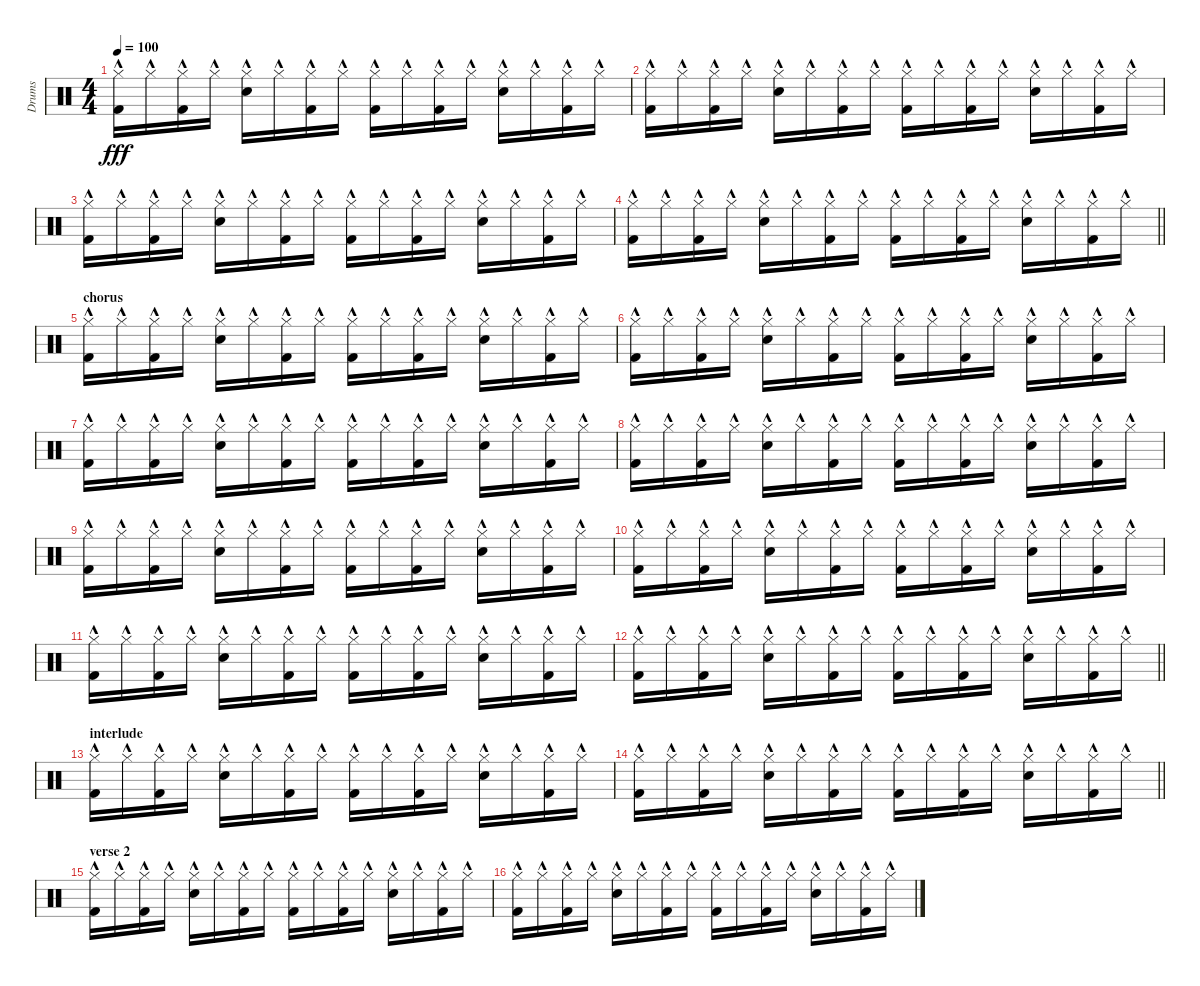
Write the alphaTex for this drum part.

\track ("Drums" "Drums") {instrument percussion}
\staff {score}
\articulation defaults
\ts (4 4)
\tempo 100
\clef neutral
\ks c
("Hi-Hat (closed)"{hac} "Kick (hit) 2").16{dy fff} "Hi-Hat (closed)"{hac}.16 ("Hi-Hat (closed)"{hac} "Kick (hit) 2").16 "Hi-Hat (closed)"{hac}.16 ("Hi-Hat (closed)"{hac} "Electric Snare (hit)"{hac}).16 "Hi-Hat (closed)"{hac}.16 ("Hi-Hat (closed)"{hac} "Kick (hit) 2").16 "Hi-Hat (closed)"{hac}.16 ("Hi-Hat (closed)"{hac} "Kick (hit) 2").16 "Hi-Hat (closed)"{hac}.16 ("Hi-Hat (closed)"{hac} "Kick (hit) 2").16 "Hi-Hat (closed)"{hac}.16 ("Hi-Hat (closed)"{hac} "Electric Snare (hit)"{hac}).16 "Hi-Hat (closed)"{hac}.16 ("Hi-Hat (closed)"{hac} "Kick (hit) 2").16 "Hi-Hat (closed)"{hac}.16 |
("Hi-Hat (closed)"{hac} "Kick (hit) 2").16 "Hi-Hat (closed)"{hac}.16 ("Hi-Hat (closed)"{hac} "Kick (hit) 2").16 "Hi-Hat (closed)"{hac}.16 ("Hi-Hat (closed)"{hac} "Electric Snare (hit)"{hac}).16 "Hi-Hat (closed)"{hac}.16 ("Hi-Hat (closed)"{hac} "Kick (hit) 2").16 "Hi-Hat (closed)"{hac}.16 ("Hi-Hat (closed)"{hac} "Kick (hit) 2").16 "Hi-Hat (closed)"{hac}.16 ("Hi-Hat (closed)"{hac} "Kick (hit) 2").16 "Hi-Hat (closed)"{hac}.16 ("Hi-Hat (closed)"{hac} "Electric Snare (hit)"{hac}).16 "Hi-Hat (closed)"{hac}.16 ("Hi-Hat (closed)"{hac} "Kick (hit) 2").16 "Hi-Hat (closed)"{hac}.16 |
("Hi-Hat (closed)"{hac} "Kick (hit) 2").16 "Hi-Hat (closed)"{hac}.16 ("Hi-Hat (closed)"{hac} "Kick (hit) 2").16 "Hi-Hat (closed)"{hac}.16 ("Hi-Hat (closed)"{hac} "Electric Snare (hit)"{hac}).16 "Hi-Hat (closed)"{hac}.16 ("Hi-Hat (closed)"{hac} "Kick (hit) 2").16 "Hi-Hat (closed)"{hac}.16 ("Hi-Hat (closed)"{hac} "Kick (hit) 2").16 "Hi-Hat (closed)"{hac}.16 ("Hi-Hat (closed)"{hac} "Kick (hit) 2").16 "Hi-Hat (closed)"{hac}.16 ("Hi-Hat (closed)"{hac} "Electric Snare (hit)"{hac}).16 "Hi-Hat (closed)"{hac}.16 ("Hi-Hat (closed)"{hac} "Kick (hit) 2").16 "Hi-Hat (closed)"{hac}.16 |
\barLineRight lightlight
("Hi-Hat (closed)"{hac} "Kick (hit) 2").16 "Hi-Hat (closed)"{hac}.16 ("Hi-Hat (closed)"{hac} "Kick (hit) 2").16 "Hi-Hat (closed)"{hac}.16 ("Hi-Hat (closed)"{hac} "Electric Snare (hit)"{hac}).16 "Hi-Hat (closed)"{hac}.16 ("Hi-Hat (closed)"{hac} "Kick (hit) 2").16 "Hi-Hat (closed)"{hac}.16 ("Hi-Hat (closed)"{hac} "Kick (hit) 2").16 "Hi-Hat (closed)"{hac}.16 ("Hi-Hat (closed)"{hac} "Kick (hit) 2").16 "Hi-Hat (closed)"{hac}.16 ("Hi-Hat (closed)"{hac} "Electric Snare (hit)"{hac}).16 "Hi-Hat (closed)"{hac}.16 ("Hi-Hat (closed)"{hac} "Kick (hit) 2").16 "Hi-Hat (closed)"{hac}.16 |
\section ("" "chorus")
("Hi-Hat (closed)"{hac} "Kick (hit) 2").16 "Hi-Hat (closed)"{hac}.16 ("Hi-Hat (closed)"{hac} "Kick (hit) 2").16 "Hi-Hat (closed)"{hac}.16 ("Hi-Hat (closed)"{hac} "Electric Snare (hit)"{hac}).16 "Hi-Hat (closed)"{hac}.16 ("Hi-Hat (closed)"{hac} "Kick (hit) 2").16 "Hi-Hat (closed)"{hac}.16 ("Hi-Hat (closed)"{hac} "Kick (hit) 2").16 "Hi-Hat (closed)"{hac}.16 ("Hi-Hat (closed)"{hac} "Kick (hit) 2").16 "Hi-Hat (closed)"{hac}.16 ("Hi-Hat (closed)"{hac} "Electric Snare (hit)"{hac}).16 "Hi-Hat (closed)"{hac}.16 ("Hi-Hat (closed)"{hac} "Kick (hit) 2").16 "Hi-Hat (closed)"{hac}.16 |
("Hi-Hat (closed)"{hac} "Kick (hit) 2").16 "Hi-Hat (closed)"{hac}.16 ("Hi-Hat (closed)"{hac} "Kick (hit) 2").16 "Hi-Hat (closed)"{hac}.16 ("Hi-Hat (closed)"{hac} "Electric Snare (hit)"{hac}).16 "Hi-Hat (closed)"{hac}.16 ("Hi-Hat (closed)"{hac} "Kick (hit) 2").16 "Hi-Hat (closed)"{hac}.16 ("Hi-Hat (closed)"{hac} "Kick (hit) 2").16 "Hi-Hat (closed)"{hac}.16 ("Hi-Hat (closed)"{hac} "Kick (hit) 2").16 "Hi-Hat (closed)"{hac}.16 ("Hi-Hat (closed)"{hac} "Electric Snare (hit)"{hac}).16 "Hi-Hat (closed)"{hac}.16 ("Hi-Hat (closed)"{hac} "Kick (hit) 2").16 "Hi-Hat (closed)"{hac}.16 |
("Hi-Hat (closed)"{hac} "Kick (hit) 2").16 "Hi-Hat (closed)"{hac}.16 ("Hi-Hat (closed)"{hac} "Kick (hit) 2").16 "Hi-Hat (closed)"{hac}.16 ("Hi-Hat (closed)"{hac} "Electric Snare (hit)"{hac}).16 "Hi-Hat (closed)"{hac}.16 ("Hi-Hat (closed)"{hac} "Kick (hit) 2").16 "Hi-Hat (closed)"{hac}.16 ("Hi-Hat (closed)"{hac} "Kick (hit) 2").16 "Hi-Hat (closed)"{hac}.16 ("Hi-Hat (closed)"{hac} "Kick (hit) 2").16 "Hi-Hat (closed)"{hac}.16 ("Hi-Hat (closed)"{hac} "Electric Snare (hit)"{hac}).16 "Hi-Hat (closed)"{hac}.16 ("Hi-Hat (closed)"{hac} "Kick (hit) 2").16 "Hi-Hat (closed)"{hac}.16 |
("Hi-Hat (closed)"{hac} "Kick (hit) 2").16 "Hi-Hat (closed)"{hac}.16 ("Hi-Hat (closed)"{hac} "Kick (hit) 2").16 "Hi-Hat (closed)"{hac}.16 ("Hi-Hat (closed)"{hac} "Electric Snare (hit)"{hac}).16 "Hi-Hat (closed)"{hac}.16 ("Hi-Hat (closed)"{hac} "Kick (hit) 2").16 "Hi-Hat (closed)"{hac}.16 ("Hi-Hat (closed)"{hac} "Kick (hit) 2").16 "Hi-Hat (closed)"{hac}.16 ("Hi-Hat (closed)"{hac} "Kick (hit) 2").16 "Hi-Hat (closed)"{hac}.16 ("Hi-Hat (closed)"{hac} "Electric Snare (hit)"{hac}).16 "Hi-Hat (closed)"{hac}.16 ("Hi-Hat (closed)"{hac} "Kick (hit) 2").16 "Hi-Hat (closed)"{hac}.16 |
("Hi-Hat (closed)"{hac} "Kick (hit) 2").16 "Hi-Hat (closed)"{hac}.16 ("Hi-Hat (closed)"{hac} "Kick (hit) 2").16 "Hi-Hat (closed)"{hac}.16 ("Hi-Hat (closed)"{hac} "Electric Snare (hit)"{hac}).16 "Hi-Hat (closed)"{hac}.16 ("Hi-Hat (closed)"{hac} "Kick (hit) 2").16 "Hi-Hat (closed)"{hac}.16 ("Hi-Hat (closed)"{hac} "Kick (hit) 2").16 "Hi-Hat (closed)"{hac}.16 ("Hi-Hat (closed)"{hac} "Kick (hit) 2").16 "Hi-Hat (closed)"{hac}.16 ("Hi-Hat (closed)"{hac} "Electric Snare (hit)"{hac}).16 "Hi-Hat (closed)"{hac}.16 ("Hi-Hat (closed)"{hac} "Kick (hit) 2").16 "Hi-Hat (closed)"{hac}.16 |
("Hi-Hat (closed)"{hac} "Kick (hit) 2").16 "Hi-Hat (closed)"{hac}.16 ("Hi-Hat (closed)"{hac} "Kick (hit) 2").16 "Hi-Hat (closed)"{hac}.16 ("Hi-Hat (closed)"{hac} "Electric Snare (hit)"{hac}).16 "Hi-Hat (closed)"{hac}.16 ("Hi-Hat (closed)"{hac} "Kick (hit) 2").16 "Hi-Hat (closed)"{hac}.16 ("Hi-Hat (closed)"{hac} "Kick (hit) 2").16 "Hi-Hat (closed)"{hac}.16 ("Hi-Hat (closed)"{hac} "Kick (hit) 2").16 "Hi-Hat (closed)"{hac}.16 ("Hi-Hat (closed)"{hac} "Electric Snare (hit)"{hac}).16 "Hi-Hat (closed)"{hac}.16 ("Hi-Hat (closed)"{hac} "Kick (hit) 2").16 "Hi-Hat (closed)"{hac}.16 |
("Hi-Hat (closed)"{hac} "Kick (hit) 2").16 "Hi-Hat (closed)"{hac}.16 ("Hi-Hat (closed)"{hac} "Kick (hit) 2").16 "Hi-Hat (closed)"{hac}.16 ("Hi-Hat (closed)"{hac} "Electric Snare (hit)"{hac}).16 "Hi-Hat (closed)"{hac}.16 ("Hi-Hat (closed)"{hac} "Kick (hit) 2").16 "Hi-Hat (closed)"{hac}.16 ("Hi-Hat (closed)"{hac} "Kick (hit) 2").16 "Hi-Hat (closed)"{hac}.16 ("Hi-Hat (closed)"{hac} "Kick (hit) 2").16 "Hi-Hat (closed)"{hac}.16 ("Hi-Hat (closed)"{hac} "Electric Snare (hit)"{hac}).16 "Hi-Hat (closed)"{hac}.16 ("Hi-Hat (closed)"{hac} "Kick (hit) 2").16 "Hi-Hat (closed)"{hac}.16 |
\barLineRight lightlight
("Hi-Hat (closed)"{hac} "Kick (hit) 2").16 "Hi-Hat (closed)"{hac}.16 ("Hi-Hat (closed)"{hac} "Kick (hit) 2").16 "Hi-Hat (closed)"{hac}.16 ("Hi-Hat (closed)"{hac} "Electric Snare (hit)"{hac}).16 "Hi-Hat (closed)"{hac}.16 ("Hi-Hat (closed)"{hac} "Kick (hit) 2").16 "Hi-Hat (closed)"{hac}.16 ("Hi-Hat (closed)"{hac} "Kick (hit) 2").16 "Hi-Hat (closed)"{hac}.16 ("Hi-Hat (closed)"{hac} "Kick (hit) 2").16 "Hi-Hat (closed)"{hac}.16 ("Hi-Hat (closed)"{hac} "Electric Snare (hit)"{hac}).16 "Hi-Hat (closed)"{hac}.16 ("Hi-Hat (closed)"{hac} "Kick (hit) 2").16 "Hi-Hat (closed)"{hac}.16 |
\section ("" "interlude")
("Hi-Hat (closed)"{hac} "Kick (hit) 2").16 "Hi-Hat (closed)"{hac}.16 ("Hi-Hat (closed)"{hac} "Kick (hit) 2").16 "Hi-Hat (closed)"{hac}.16 ("Hi-Hat (closed)"{hac} "Electric Snare (hit)"{hac}).16 "Hi-Hat (closed)"{hac}.16 ("Hi-Hat (closed)"{hac} "Kick (hit) 2").16 "Hi-Hat (closed)"{hac}.16 ("Hi-Hat (closed)"{hac} "Kick (hit) 2").16 "Hi-Hat (closed)"{hac}.16 ("Hi-Hat (closed)"{hac} "Kick (hit) 2").16 "Hi-Hat (closed)"{hac}.16 ("Hi-Hat (closed)"{hac} "Electric Snare (hit)"{hac}).16 "Hi-Hat (closed)"{hac}.16 ("Hi-Hat (closed)"{hac} "Kick (hit) 2").16 "Hi-Hat (closed)"{hac}.16 |
\barLineRight lightlight
("Hi-Hat (closed)"{hac} "Kick (hit) 2").16 "Hi-Hat (closed)"{hac}.16 ("Hi-Hat (closed)"{hac} "Kick (hit) 2").16 "Hi-Hat (closed)"{hac}.16 ("Hi-Hat (closed)"{hac} "Electric Snare (hit)"{hac}).16 "Hi-Hat (closed)"{hac}.16 ("Hi-Hat (closed)"{hac} "Kick (hit) 2").16 "Hi-Hat (closed)"{hac}.16 ("Hi-Hat (closed)"{hac} "Kick (hit) 2").16 "Hi-Hat (closed)"{hac}.16 ("Hi-Hat (closed)"{hac} "Kick (hit) 2").16 "Hi-Hat (closed)"{hac}.16 ("Hi-Hat (closed)"{hac} "Electric Snare (hit)"{hac}).16 "Hi-Hat (closed)"{hac}.16 ("Hi-Hat (closed)"{hac} "Kick (hit) 2").16 "Hi-Hat (closed)"{hac}.16 |
\section ("" "verse 2")
("Hi-Hat (closed)"{hac} "Kick (hit) 2").16 "Hi-Hat (closed)"{hac}.16 ("Hi-Hat (closed)"{hac} "Kick (hit) 2").16 "Hi-Hat (closed)"{hac}.16 ("Hi-Hat (closed)"{hac} "Electric Snare (hit)"{hac}).16 "Hi-Hat (closed)"{hac}.16 ("Hi-Hat (closed)"{hac} "Kick (hit) 2").16 "Hi-Hat (closed)"{hac}.16 ("Hi-Hat (closed)"{hac} "Kick (hit) 2").16 "Hi-Hat (closed)"{hac}.16 ("Hi-Hat (closed)"{hac} "Kick (hit) 2").16 "Hi-Hat (closed)"{hac}.16 ("Hi-Hat (closed)"{hac} "Electric Snare (hit)"{hac}).16 "Hi-Hat (closed)"{hac}.16 ("Hi-Hat (closed)"{hac} "Kick (hit) 2").16 "Hi-Hat (closed)"{hac}.16 |
("Hi-Hat (closed)"{hac} "Kick (hit) 2").16 "Hi-Hat (closed)"{hac}.16 ("Hi-Hat (closed)"{hac} "Kick (hit) 2").16 "Hi-Hat (closed)"{hac}.16 ("Hi-Hat (closed)"{hac} "Electric Snare (hit)"{hac}).16 "Hi-Hat (closed)"{hac}.16 ("Hi-Hat (closed)"{hac} "Kick (hit) 2").16 "Hi-Hat (closed)"{hac}.16 ("Hi-Hat (closed)"{hac} "Kick (hit) 2").16 "Hi-Hat (closed)"{hac}.16 ("Hi-Hat (closed)"{hac} "Kick (hit) 2").16 "Hi-Hat (closed)"{hac}.16 ("Hi-Hat (closed)"{hac} "Electric Snare (hit)"{hac}).16 "Hi-Hat (closed)"{hac}.16 ("Hi-Hat (closed)"{hac} "Kick (hit) 2").16 "Hi-Hat (closed)"{hac}.16
